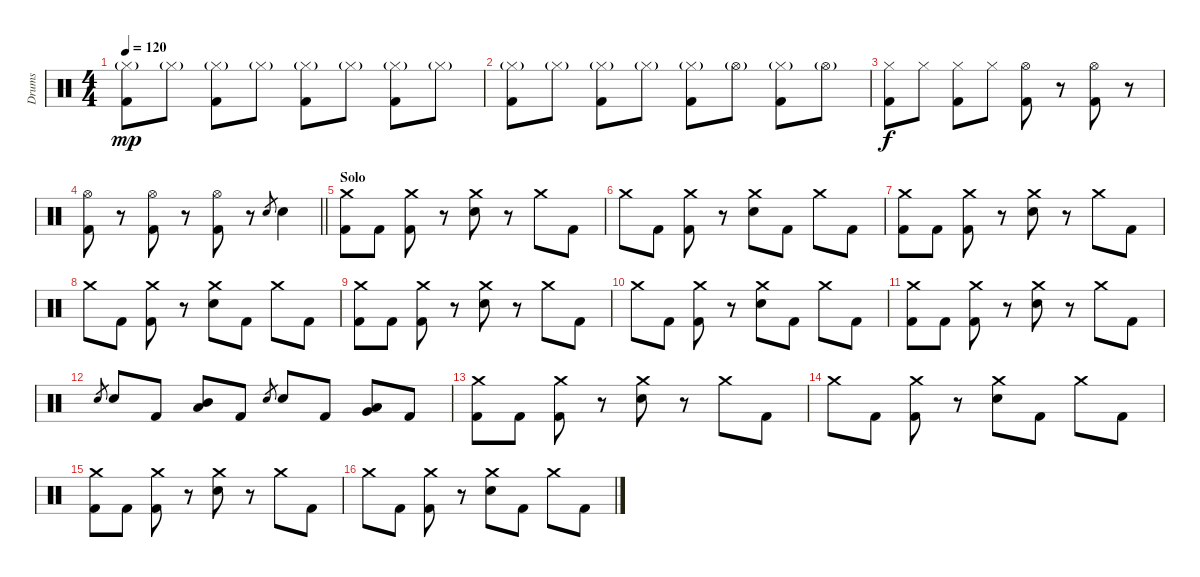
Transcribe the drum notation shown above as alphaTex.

\track ("Drums " "Drums ") {instrument percussion}
\staff {score}
\articulation defaults
\ts (4 4)
\tempo 120
\clef neutral
\ks c
("Hi-Hat (closed)"{g} "Kick (hit) 2").8{dy mp} "Hi-Hat (closed)"{g}.8 ("Hi-Hat (closed)"{g} "Kick (hit) 2").8 "Hi-Hat (closed)"{g}.8 ("Hi-Hat (closed)"{g} "Kick (hit) 2").8 "Hi-Hat (closed)"{g}.8 ("Hi-Hat (closed)"{g} "Kick (hit) 2").8 "Hi-Hat (closed)"{g}.8 |
("Hi-Hat (closed)"{g} "Kick (hit) 2").8 "Hi-Hat (closed)"{g}.8 ("Hi-Hat (closed)"{g} "Kick (hit) 2").8 "Hi-Hat (closed)"{g}.8 ("Hi-Hat (closed)"{g} "Kick (hit) 2").8 "Hi-Hat (open)"{g}.8 ("Hi-Hat (closed)"{g} "Kick (hit) 2").8 "Hi-Hat (open)"{g}.8 |
("Hi-Hat (closed)" "Kick (hit) 2").8{dy f} "Hi-Hat (closed)".8 ("Hi-Hat (closed)" "Kick (hit) 2").8 "Hi-Hat (closed)".8 ("Hi-Hat (open)" "Kick (hit) 2").8 r.8 ("Hi-Hat (open)" "Kick (hit) 2").8 r.8 |
\barLineRight lightlight
("Hi-Hat (open)" "Kick (hit) 2").8 r.8 ("Hi-Hat (open)" "Kick (hit) 2").8 r.8 ("Hi-Hat (open)" "Kick (hit) 2").8 r.8 "Electric Snare (hit)".8{gr} "Electric Snare (hit)".4 |
\section ("" "Solo")
("Crash medium (hit)" "Kick (hit) 2").8 "Kick (hit) 2".8 ("Crash medium (hit)" "Kick (hit) 2").8 r.8 ("Crash medium (hit)" "Electric Snare (hit)").8 r.8 "Crash medium (hit)".8 "Kick (hit) 2".8 |
"Crash medium (hit)".8 "Kick (hit) 2".8 ("Crash medium (hit)" "Kick (hit) 2").8 r.8 ("Crash medium (hit)" "Electric Snare (hit)").8 "Kick (hit) 2".8 "Crash medium (hit)".8 "Kick (hit) 2".8 |
("Crash medium (hit)" "Kick (hit) 2").8 "Kick (hit) 2".8 ("Crash medium (hit)" "Kick (hit) 2").8 r.8 ("Crash medium (hit)" "Electric Snare (hit)").8 r.8 "Crash medium (hit)".8 "Kick (hit) 2".8 |
"Crash medium (hit)".8 "Kick (hit) 2".8 ("Crash medium (hit)" "Kick (hit) 2").8 r.8 ("Crash medium (hit)" "Electric Snare (hit)").8 "Kick (hit) 2".8 "Crash medium (hit)".8 "Kick (hit) 2".8 |
("Crash medium (hit)" "Kick (hit) 2").8 "Kick (hit) 2".8 ("Crash medium (hit)" "Kick (hit) 2").8 r.8 ("Crash medium (hit)" "Electric Snare (hit)").8 r.8 "Crash medium (hit)".8 "Kick (hit) 2".8 |
"Crash medium (hit)".8 "Kick (hit) 2".8 ("Crash medium (hit)" "Kick (hit) 2").8 r.8 ("Crash medium (hit)" "Electric Snare (hit)").8 "Kick (hit) 2".8 "Crash medium (hit)".8 "Kick (hit) 2".8 |
("Crash medium (hit)" "Kick (hit) 2").8 "Kick (hit) 2".8 ("Crash medium (hit)" "Kick (hit) 2").8 r.8 ("Crash medium (hit)" "Electric Snare (hit)").8 r.8 "Crash medium (hit)".8 "Kick (hit) 2".8 |
"Electric Snare (hit)".8{gr} "Electric Snare (hit)".8 "Kick (hit) 2".8 ("Mid Tom (hit)" "Low Tom (hit)").8 "Kick (hit) 2".8 "Electric Snare (hit)".8{gr} "Electric Snare (hit)".8 "Kick (hit) 2".8 ("Very Low Tom (hit)" "Low Tom (hit)").8 "Kick (hit) 2".8 |
("Crash medium (hit)" "Kick (hit) 2").8 "Kick (hit) 2".8 ("Crash medium (hit)" "Kick (hit) 2").8 r.8 ("Crash medium (hit)" "Electric Snare (hit)").8 r.8 "Crash medium (hit)".8 "Kick (hit) 2".8 |
"Crash medium (hit)".8 "Kick (hit) 2".8 ("Crash medium (hit)" "Kick (hit) 2").8 r.8 ("Crash medium (hit)" "Electric Snare (hit)").8 "Kick (hit) 2".8 "Crash medium (hit)".8 "Kick (hit) 2".8 |
("Crash medium (hit)" "Kick (hit) 2").8 "Kick (hit) 2".8 ("Crash medium (hit)" "Kick (hit) 2").8 r.8 ("Crash medium (hit)" "Electric Snare (hit)").8 r.8 "Crash medium (hit)".8 "Kick (hit) 2".8 |
"Crash medium (hit)".8 "Kick (hit) 2".8 ("Crash medium (hit)" "Kick (hit) 2").8 r.8 ("Crash medium (hit)" "Electric Snare (hit)").8 "Kick (hit) 2".8 "Crash medium (hit)".8 "Kick (hit) 2".8
